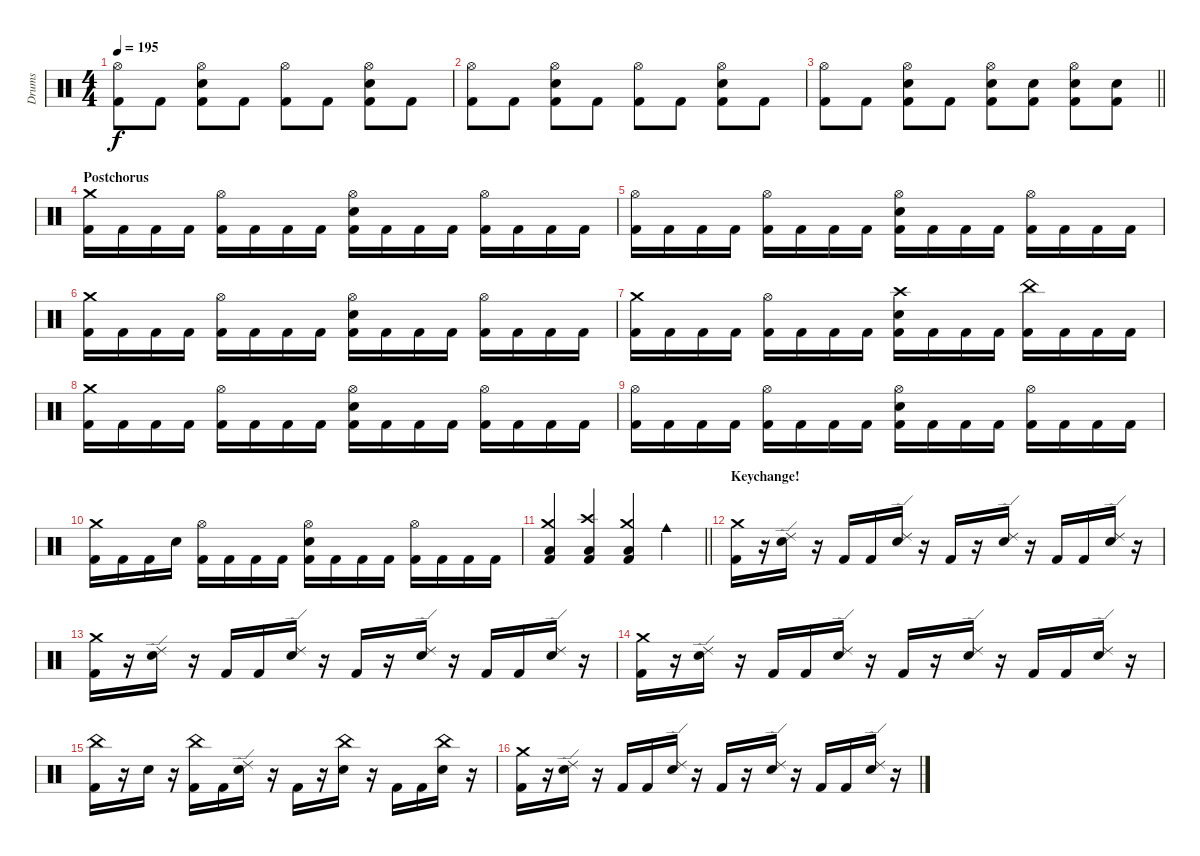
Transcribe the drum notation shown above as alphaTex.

\track ("Drums" "Drums") {instrument percussion}
\staff {score}
\articulation defaults
\ts (4 4)
\tempo 195
\clef neutral
\ks c
("Hi-Hat (open)" "Kick (hit) 2").8{dy f} "Kick (hit) 2".8 ("Hi-Hat (open)" "Snare (hit) 2" "Kick (hit) 2").8 "Kick (hit) 2".8 ("Hi-Hat (open)" "Kick (hit) 2").8 "Kick (hit) 2".8 ("Hi-Hat (open)" "Snare (hit) 2" "Kick (hit) 2").8 "Kick (hit) 2".8 |
("Hi-Hat (open)" "Kick (hit) 2").8 "Kick (hit) 2".8 ("Hi-Hat (open)" "Snare (hit) 2" "Kick (hit) 2").8 "Kick (hit) 2".8 ("Hi-Hat (open)" "Kick (hit) 2").8 "Kick (hit) 2".8 ("Hi-Hat (open)" "Snare (hit) 2" "Kick (hit) 2").8 "Kick (hit) 2".8 |
\barLineRight lightlight
("Hi-Hat (open)" "Kick (hit) 2").8 "Kick (hit) 2".8 ("Hi-Hat (open)" "Snare (hit) 2" "Kick (hit) 2").8 "Kick (hit) 2".8 ("Hi-Hat (open)" "Snare (hit) 2" "Kick (hit) 2").8 ("Snare (hit) 2" "Kick (hit) 2").8 ("Hi-Hat (open)" "Snare (hit) 2" "Kick (hit) 2").8 ("Snare (hit) 2" "Kick (hit) 2").8 |
\section ("" "Postchorus")
("Crash medium (hit)" "Kick (hit) 2").16 "Kick (hit) 2".16 "Kick (hit) 2".16 "Kick (hit) 2".16 ("Hi-Hat (open)" "Kick (hit) 2").16 "Kick (hit) 2".16 "Kick (hit) 2".16 "Kick (hit) 2".16 ("Hi-Hat (open)" "Snare (hit) 2" "Kick (hit) 2").16 "Kick (hit) 2".16 "Kick (hit) 2".16 "Kick (hit) 2".16 ("Hi-Hat (open)" "Kick (hit) 2").16 "Kick (hit) 2".16 "Kick (hit) 2".16 "Kick (hit) 2".16 |
("Hi-Hat (open)" "Kick (hit) 2").16 "Kick (hit) 2".16 "Kick (hit) 2".16 "Kick (hit) 2".16 ("Hi-Hat (open)" "Kick (hit) 2").16 "Kick (hit) 2".16 "Kick (hit) 2".16 "Kick (hit) 2".16 ("Hi-Hat (open)" "Snare (hit) 2" "Kick (hit) 2").16 "Kick (hit) 2".16 "Kick (hit) 2".16 "Kick (hit) 2".16 ("Hi-Hat (open)" "Kick (hit) 2").16 "Kick (hit) 2".16 "Kick (hit) 2".16 "Kick (hit) 2".16 |
("Crash medium (hit)" "Kick (hit) 2").16 "Kick (hit) 2".16 "Kick (hit) 2".16 "Kick (hit) 2".16 ("Hi-Hat (open)" "Kick (hit) 2").16 "Kick (hit) 2".16 "Kick (hit) 2".16 "Kick (hit) 2".16 ("Hi-Hat (open)" "Snare (hit) 2" "Kick (hit) 2").16 "Kick (hit) 2".16 "Kick (hit) 2".16 "Kick (hit) 2".16 ("Hi-Hat (open)" "Kick (hit) 2").16 "Kick (hit) 2".16 "Kick (hit) 2".16 "Kick (hit) 2".16 |
("Crash medium (hit)" "Kick (hit) 2").16 "Kick (hit) 2".16 "Kick (hit) 2".16 "Kick (hit) 2".16 ("Hi-Hat (open)" "Kick (hit) 2").16 "Kick (hit) 2".16 "Kick (hit) 2".16 "Kick (hit) 2".16 ("Crash high (hit)" "Snare (hit) 2" "Kick (hit) 2").16 "Kick (hit) 2".16 "Kick (hit) 2".16 "Kick (hit) 2".16 ("China (hit)" "Kick (hit) 2").16 "Kick (hit) 2".16 "Kick (hit) 2".16 "Kick (hit) 2".16 |
("Crash medium (hit)" "Kick (hit) 2").16 "Kick (hit) 2".16 "Kick (hit) 2".16 "Kick (hit) 2".16 ("Hi-Hat (open)" "Kick (hit) 2").16 "Kick (hit) 2".16 "Kick (hit) 2".16 "Kick (hit) 2".16 ("Hi-Hat (open)" "Snare (hit) 2" "Kick (hit) 2").16 "Kick (hit) 2".16 "Kick (hit) 2".16 "Kick (hit) 2".16 ("Hi-Hat (open)" "Kick (hit) 2").16 "Kick (hit) 2".16 "Kick (hit) 2".16 "Kick (hit) 2".16 |
("Hi-Hat (open)" "Kick (hit) 2").16 "Kick (hit) 2".16 "Kick (hit) 2".16 "Kick (hit) 2".16 ("Hi-Hat (open)" "Kick (hit) 2").16 "Kick (hit) 2".16 "Kick (hit) 2".16 "Kick (hit) 2".16 ("Hi-Hat (open)" "Snare (hit) 2" "Kick (hit) 2").16 "Kick (hit) 2".16 "Kick (hit) 2".16 "Kick (hit) 2".16 ("Hi-Hat (open)" "Kick (hit) 2").16 "Kick (hit) 2".16 "Kick (hit) 2".16 "Kick (hit) 2".16 |
("Crash medium (hit)" "Kick (hit) 2").16 "Kick (hit) 2".16 "Kick (hit) 2".16 "Snare (hit)".16 ("Hi-Hat (open)" "Kick (hit) 2").16 "Kick (hit) 2".16 "Kick (hit) 2".16 "Kick (hit) 2".16 ("Hi-Hat (open)" "Snare (hit) 2" "Kick (hit) 2").16 "Kick (hit) 2".16 "Kick (hit) 2".16 "Kick (hit) 2".16 ("Hi-Hat (open)" "Kick (hit) 2").16 "Kick (hit) 2".16 "Kick (hit) 2".16 "Kick (hit) 2".16 |
\barLineRight lightlight
("Crash medium (hit)" "Low Floor Tom (hit)" "Kick (hit) 2").4 ("Crash high (hit)" "Low Floor Tom (hit)" "Kick (hit) 2").4 ("Crash medium (hit)" "Low Floor Tom (hit)" "Kick (hit) 2").4 "Cowbell medium (hit)".4 |
\section ("" "Keychange!")
("Crash medium (hit)" "Kick (hit) 2").16 r.16 ("Ride (edge) 2" "Snare (hit) 2").16 r.16 "Kick (hit) 2".16 "Kick (hit) 2".16 ("Ride (edge) 2" "Snare (hit) 2").16 r.16 "Kick (hit) 2".16 r.16 ("Ride (edge) 2" "Snare (hit) 2").16 r.16 "Kick (hit) 2".16 "Kick (hit) 2".16 ("Ride (edge) 2" "Snare (hit) 2").16 r.16 |
("Crash medium (hit)" "Kick (hit) 2").16 r.16 ("Ride (edge) 2" "Snare (hit) 2").16 r.16 "Kick (hit) 2".16 "Kick (hit) 2".16 ("Ride (edge) 2" "Snare (hit) 2").16 r.16 "Kick (hit) 2".16 r.16 ("Ride (edge) 2" "Snare (hit) 2").16 r.16 "Kick (hit) 2".16 "Kick (hit) 2".16 ("Ride (edge) 2" "Snare (hit) 2").16 r.16 |
("Crash medium (hit)" "Kick (hit) 2").16 r.16 ("Ride (edge) 2" "Snare (hit) 2").16 r.16 "Kick (hit) 2".16 "Kick (hit) 2".16 ("Ride (edge) 2" "Snare (hit) 2").16 r.16 "Kick (hit) 2".16 r.16 ("Ride (edge) 2" "Snare (hit) 2").16 r.16 "Kick (hit) 2".16 "Kick (hit) 2".16 ("Ride (edge) 2" "Snare (hit) 2").16 r.16 |
("China (hit)" "Kick (hit) 2").16 r.16 "Snare (hit) 2".16 r.16 ("China (hit)" "Kick (hit) 2").16 "Kick (hit) 2".16 ("Ride (edge) 2" "Snare (hit) 2").16 r.16 "Kick (hit) 2".16 r.16 ("China (hit)" "Snare (hit) 2").16 r.16 "Kick (hit) 2".16 "Kick (hit) 2".16 ("China (hit)" "Snare (hit) 2").16 r.16 |
("Crash medium (hit)" "Kick (hit) 2").16 r.16 ("Ride (edge) 2" "Snare (hit) 2").16 r.16 "Kick (hit) 2".16 "Kick (hit) 2".16 ("Ride (edge) 2" "Snare (hit) 2").16 r.16 "Kick (hit) 2".16 r.16 ("Ride (edge) 2" "Snare (hit) 2").16 r.16 "Kick (hit) 2".16 "Kick (hit) 2".16 ("Ride (edge) 2" "Snare (hit) 2").16 r.16
